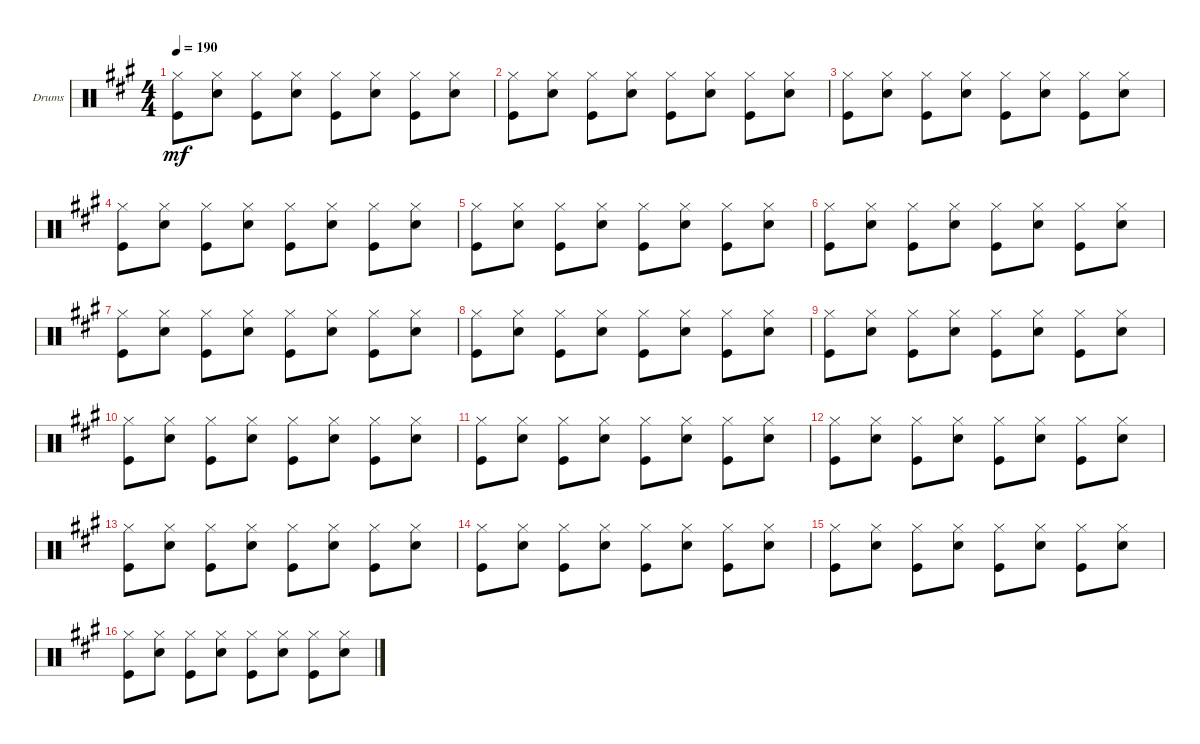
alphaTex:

\defaultSystemsLayout 4
\bracketExtendMode groupsimilarinstruments
\firstSystemTrackNameOrientation horizontal
\otherSystemsTrackNameOrientation horizontal
\track ("Drumkit" "Drums") {instrument percussion}
\staff {score}
\articulation defaults
\ts (4 4)
\tempo 190
\clef neutral
\ks f#minor
("Kick (hit)" "Hi-Hat (closed)").8{dy mf} ("Snare (hit) 2" "Hi-Hat (closed)").8 ("Kick (hit)" "Hi-Hat (closed)").8 ("Snare (hit) 2" "Hi-Hat (closed)").8 ("Kick (hit)" "Hi-Hat (closed)").8 ("Snare (hit) 2" "Hi-Hat (closed)").8 ("Kick (hit)" "Hi-Hat (closed)").8 ("Snare (hit) 2" "Hi-Hat (closed)").8 |
("Kick (hit)" "Hi-Hat (closed)").8 ("Snare (hit) 2" "Hi-Hat (closed)").8 ("Kick (hit)" "Hi-Hat (closed)").8 ("Snare (hit) 2" "Hi-Hat (closed)").8 ("Kick (hit)" "Hi-Hat (closed)").8 ("Snare (hit) 2" "Hi-Hat (closed)").8 ("Kick (hit)" "Hi-Hat (closed)").8 ("Snare (hit) 2" "Hi-Hat (closed)").8 |
("Kick (hit)" "Hi-Hat (closed)").8 ("Snare (hit) 2" "Hi-Hat (closed)").8 ("Kick (hit)" "Hi-Hat (closed)").8 ("Snare (hit) 2" "Hi-Hat (closed)").8 ("Kick (hit)" "Hi-Hat (closed)").8 ("Snare (hit) 2" "Hi-Hat (closed)").8 ("Kick (hit)" "Hi-Hat (closed)").8 ("Snare (hit) 2" "Hi-Hat (closed)").8 |
("Kick (hit)" "Hi-Hat (closed)").8 ("Snare (hit) 2" "Hi-Hat (closed)").8 ("Kick (hit)" "Hi-Hat (closed)").8 ("Snare (hit) 2" "Hi-Hat (closed)").8 ("Kick (hit)" "Hi-Hat (closed)").8 ("Snare (hit) 2" "Hi-Hat (closed)").8 ("Kick (hit)" "Hi-Hat (closed)").8 ("Snare (hit) 2" "Hi-Hat (closed)").8 |
("Kick (hit)" "Hi-Hat (closed)").8 ("Snare (hit) 2" "Hi-Hat (closed)").8 ("Kick (hit)" "Hi-Hat (closed)").8 ("Snare (hit) 2" "Hi-Hat (closed)").8 ("Kick (hit)" "Hi-Hat (closed)").8 ("Snare (hit) 2" "Hi-Hat (closed)").8 ("Kick (hit)" "Hi-Hat (closed)").8 ("Snare (hit) 2" "Hi-Hat (closed)").8 |
("Kick (hit)" "Hi-Hat (closed)").8 ("Snare (hit) 2" "Hi-Hat (closed)").8 ("Kick (hit)" "Hi-Hat (closed)").8 ("Snare (hit) 2" "Hi-Hat (closed)").8 ("Kick (hit)" "Hi-Hat (closed)").8 ("Snare (hit) 2" "Hi-Hat (closed)").8 ("Kick (hit)" "Hi-Hat (closed)").8 ("Snare (hit) 2" "Hi-Hat (closed)").8 |
("Kick (hit)" "Hi-Hat (closed)").8 ("Snare (hit) 2" "Hi-Hat (closed)").8 ("Kick (hit)" "Hi-Hat (closed)").8 ("Snare (hit) 2" "Hi-Hat (closed)").8 ("Kick (hit)" "Hi-Hat (closed)").8 ("Snare (hit) 2" "Hi-Hat (closed)").8 ("Kick (hit)" "Hi-Hat (closed)").8 ("Snare (hit) 2" "Hi-Hat (closed)").8 |
("Kick (hit)" "Hi-Hat (closed)").8 ("Snare (hit) 2" "Hi-Hat (closed)").8 ("Kick (hit)" "Hi-Hat (closed)").8 ("Snare (hit) 2" "Hi-Hat (closed)").8 ("Kick (hit)" "Hi-Hat (closed)").8 ("Snare (hit) 2" "Hi-Hat (closed)").8 ("Kick (hit)" "Hi-Hat (closed)").8 ("Snare (hit) 2" "Hi-Hat (closed)").8 |
("Kick (hit)" "Hi-Hat (closed)").8 ("Snare (hit) 2" "Hi-Hat (closed)").8 ("Kick (hit)" "Hi-Hat (closed)").8 ("Snare (hit) 2" "Hi-Hat (closed)").8 ("Kick (hit)" "Hi-Hat (closed)").8 ("Snare (hit) 2" "Hi-Hat (closed)").8 ("Kick (hit)" "Hi-Hat (closed)").8 ("Snare (hit) 2" "Hi-Hat (closed)").8 |
("Kick (hit)" "Hi-Hat (closed)").8 ("Snare (hit) 2" "Hi-Hat (closed)").8 ("Kick (hit)" "Hi-Hat (closed)").8 ("Snare (hit) 2" "Hi-Hat (closed)").8 ("Kick (hit)" "Hi-Hat (closed)").8 ("Snare (hit) 2" "Hi-Hat (closed)").8 ("Kick (hit)" "Hi-Hat (closed)").8 ("Snare (hit) 2" "Hi-Hat (closed)").8 |
("Kick (hit)" "Hi-Hat (closed)").8 ("Snare (hit) 2" "Hi-Hat (closed)").8 ("Kick (hit)" "Hi-Hat (closed)").8 ("Snare (hit) 2" "Hi-Hat (closed)").8 ("Kick (hit)" "Hi-Hat (closed)").8 ("Snare (hit) 2" "Hi-Hat (closed)").8 ("Kick (hit)" "Hi-Hat (closed)").8 ("Snare (hit) 2" "Hi-Hat (closed)").8 |
("Kick (hit)" "Hi-Hat (closed)").8 ("Snare (hit) 2" "Hi-Hat (closed)").8 ("Kick (hit)" "Hi-Hat (closed)").8 ("Snare (hit) 2" "Hi-Hat (closed)").8 ("Kick (hit)" "Hi-Hat (closed)").8 ("Snare (hit) 2" "Hi-Hat (closed)").8 ("Kick (hit)" "Hi-Hat (closed)").8 ("Snare (hit) 2" "Hi-Hat (closed)").8 |
("Kick (hit)" "Hi-Hat (closed)").8 ("Snare (hit) 2" "Hi-Hat (closed)").8 ("Kick (hit)" "Hi-Hat (closed)").8 ("Snare (hit) 2" "Hi-Hat (closed)").8 ("Kick (hit)" "Hi-Hat (closed)").8 ("Snare (hit) 2" "Hi-Hat (closed)").8 ("Kick (hit)" "Hi-Hat (closed)").8 ("Snare (hit) 2" "Hi-Hat (closed)").8 |
("Kick (hit)" "Hi-Hat (closed)").8 ("Snare (hit) 2" "Hi-Hat (closed)").8 ("Kick (hit)" "Hi-Hat (closed)").8 ("Snare (hit) 2" "Hi-Hat (closed)").8 ("Kick (hit)" "Hi-Hat (closed)").8 ("Snare (hit) 2" "Hi-Hat (closed)").8 ("Kick (hit)" "Hi-Hat (closed)").8 ("Snare (hit) 2" "Hi-Hat (closed)").8 |
("Kick (hit)" "Hi-Hat (closed)").8 ("Snare (hit) 2" "Hi-Hat (closed)").8 ("Kick (hit)" "Hi-Hat (closed)").8 ("Snare (hit) 2" "Hi-Hat (closed)").8 ("Kick (hit)" "Hi-Hat (closed)").8 ("Snare (hit) 2" "Hi-Hat (closed)").8 ("Kick (hit)" "Hi-Hat (closed)").8 ("Snare (hit) 2" "Hi-Hat (closed)").8 |
("Kick (hit)" "Hi-Hat (closed)").8 ("Snare (hit) 2" "Hi-Hat (closed)").8 ("Kick (hit)" "Hi-Hat (closed)").8 ("Snare (hit) 2" "Hi-Hat (closed)").8 ("Kick (hit)" "Hi-Hat (closed)").8 ("Snare (hit) 2" "Hi-Hat (closed)").8 ("Kick (hit)" "Hi-Hat (closed)").8 ("Snare (hit) 2" "Hi-Hat (closed)").8
